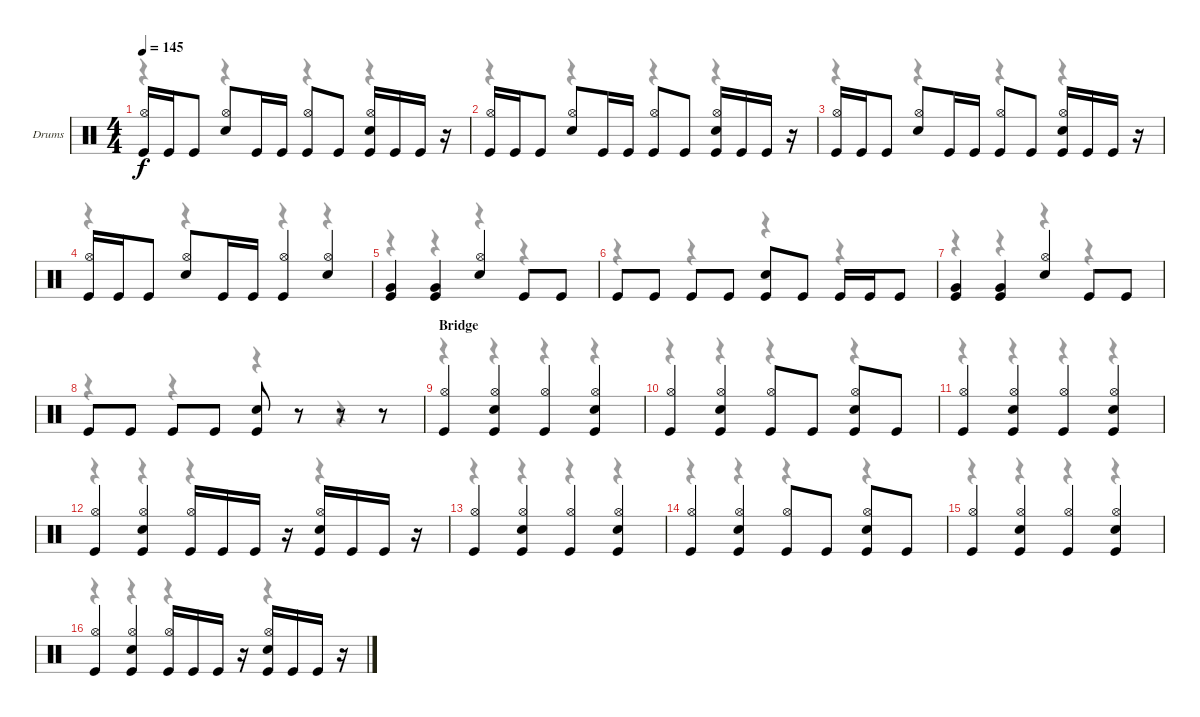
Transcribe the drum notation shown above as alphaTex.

\bracketExtendMode groupsimilarinstruments
\firstSystemTrackNameOrientation horizontal
\otherSystemsTrackNameOrientation horizontal
\track ("Drumkit" "Drums") {solo instrument percussion}
\staff {score}
\articulation defaults
\voice
\ts (4 4)
\tempo 145
\clef neutral
\ks c
("Kick (hit)" "Hi-Hat (open)").16{dy f} "Kick (hit)".16 "Kick (hit)".8 ("Snare (hit) 2" "Hi-Hat (open)").8 "Kick (hit)".16 "Kick (hit)".16 ("Kick (hit)" "Hi-Hat (open)").8 "Kick (hit)".8 ("Kick (hit)" "Snare (hit) 2" "Hi-Hat (open)").16 "Kick (hit)".16 "Kick (hit)".16 r.16 |
("Kick (hit)" "Hi-Hat (open)").16 "Kick (hit)".16 "Kick (hit)".8 ("Snare (hit) 2" "Hi-Hat (open)").8 "Kick (hit)".16 "Kick (hit)".16 ("Kick (hit)" "Hi-Hat (open)").8 "Kick (hit)".8 ("Kick (hit)" "Snare (hit) 2" "Hi-Hat (open)").16 "Kick (hit)".16 "Kick (hit)".16 r.16 |
("Kick (hit)" "Hi-Hat (open)").16 "Kick (hit)".16 "Kick (hit)".8 ("Snare (hit) 2" "Hi-Hat (open)").8 "Kick (hit)".16 "Kick (hit)".16 ("Kick (hit)" "Hi-Hat (open)").8 "Kick (hit)".8 ("Kick (hit)" "Snare (hit) 2" "Hi-Hat (open)").16 "Kick (hit)".16 "Kick (hit)".16 r.16 |
("Kick (hit)" "Hi-Hat (open)").16 "Kick (hit)".16 "Kick (hit)".8 ("Snare (hit) 2" "Hi-Hat (open)").8 "Kick (hit)".16 "Kick (hit)".16 ("Kick (hit)" "Hi-Hat (open)").4 ("Snare (hit) 2" "Hi-Hat (open)").4 |
("Very Low Tom (hit)" "Kick (hit)").4 ("Very Low Tom (hit)" "Kick (hit)").4 ("Snare (hit) 2" "Hi-Hat (open)").4 "Kick (hit)".8 "Kick (hit)".8 |
"Kick (hit)".8 "Kick (hit)".8 "Kick (hit)".8 "Kick (hit)".8 ("Kick (hit)" "Snare (hit) 2").8 "Kick (hit)".8 "Kick (hit)".16 "Kick (hit)".16 "Kick (hit)".8 |
("Very Low Tom (hit)" "Kick (hit)").4 ("Very Low Tom (hit)" "Kick (hit)").4 ("Snare (hit) 2" "Hi-Hat (open)").4 "Kick (hit)".8 "Kick (hit)".8 |
"Kick (hit)".8 "Kick (hit)".8 "Kick (hit)".8 "Kick (hit)".8 ("Kick (hit)" "Snare (hit) 2").8 r.8 r.8 r.8 |
\section ("" "Bridge")
("Kick (hit)" "Hi-Hat (open)").4 ("Kick (hit)" "Snare (hit) 2" "Hi-Hat (open)").4 ("Kick (hit)" "Hi-Hat (open)").4 ("Kick (hit)" "Snare (hit) 2" "Hi-Hat (open)").4 |
("Kick (hit)" "Hi-Hat (open)").4 ("Kick (hit)" "Snare (hit) 2" "Hi-Hat (open)").4 ("Kick (hit)" "Hi-Hat (open)").8 "Kick (hit)".8 ("Kick (hit)" "Snare (hit) 2" "Hi-Hat (open)").8 "Kick (hit)".8 |
("Kick (hit)" "Hi-Hat (open)").4 ("Kick (hit)" "Snare (hit) 2" "Hi-Hat (open)").4 ("Kick (hit)" "Hi-Hat (open)").4 ("Kick (hit)" "Snare (hit) 2" "Hi-Hat (open)").4 |
("Kick (hit)" "Hi-Hat (open)").4 ("Kick (hit)" "Snare (hit) 2" "Hi-Hat (open)").4 ("Kick (hit)" "Hi-Hat (open)").16 "Kick (hit)".16 "Kick (hit)".16 r.16 ("Kick (hit)" "Snare (hit) 2" "Hi-Hat (open)").16 "Kick (hit)".16 "Kick (hit)".16 r.16 |
("Kick (hit)" "Hi-Hat (open)").4 ("Kick (hit)" "Snare (hit) 2" "Hi-Hat (open)").4 ("Kick (hit)" "Hi-Hat (open)").4 ("Kick (hit)" "Snare (hit) 2" "Hi-Hat (open)").4 |
("Kick (hit)" "Hi-Hat (open)").4 ("Kick (hit)" "Snare (hit) 2" "Hi-Hat (open)").4 ("Kick (hit)" "Hi-Hat (open)").8 "Kick (hit)".8 ("Kick (hit)" "Snare (hit) 2" "Hi-Hat (open)").8 "Kick (hit)".8 |
("Kick (hit)" "Hi-Hat (open)").4 ("Kick (hit)" "Snare (hit) 2" "Hi-Hat (open)").4 ("Kick (hit)" "Hi-Hat (open)").4 ("Kick (hit)" "Snare (hit) 2" "Hi-Hat (open)").4 |
("Kick (hit)" "Hi-Hat (open)").4 ("Kick (hit)" "Snare (hit) 2" "Hi-Hat (open)").4 ("Kick (hit)" "Hi-Hat (open)").16 "Kick (hit)".16 "Kick (hit)".16 r.16 ("Kick (hit)" "Snare (hit) 2" "Hi-Hat (open)").16 "Kick (hit)".16 "Kick (hit)".16 r.16
\voice
\clef neutral
\ottava regular
\simile none
\ks c
r.4{dy mf} r.4 r.4 r.4 |
r.4 r.4 r.4 r.4 |
r.4 r.4 r.4 r.4 |
r.4 r.4 r.4 r.4 |
r.4 r.4 r.4 r.4 |
r.4 r.4 r.4 r.4 |
r.4 r.4 r.4 r.4 |
r.4 r.4 r.4 r.4 |
r.4 r.4 r.4 r.4 |
r.4 r.4 r.4 r.4 |
r.4 r.4 r.4 r.4 |
r.4 r.4 r.4 r.4 |
r.4 r.4 r.4 r.4 |
r.4 r.4 r.4 r.4 |
r.4 r.4 r.4 r.4 |
r.4 r.4 r.4 r.4
